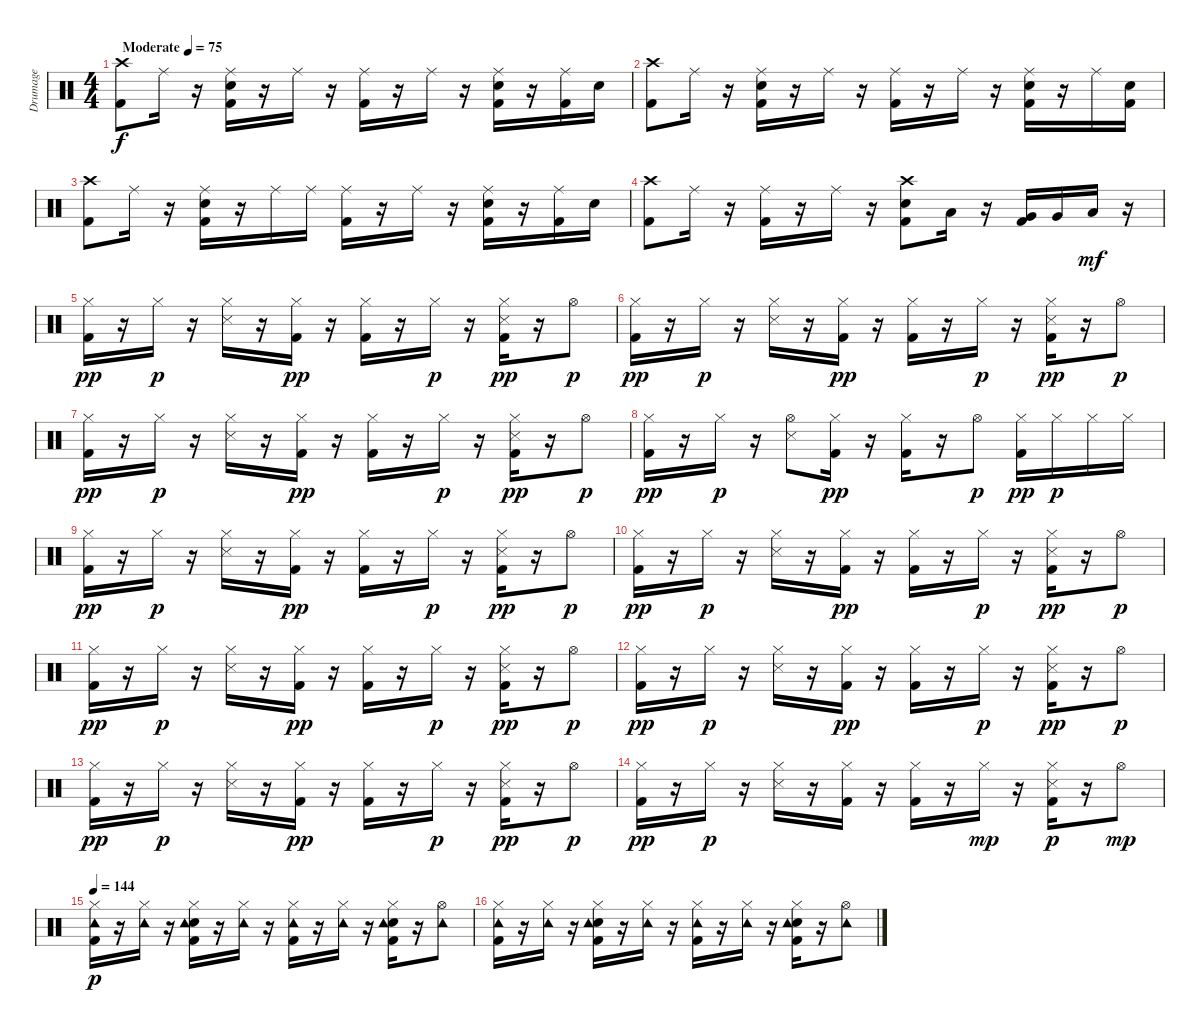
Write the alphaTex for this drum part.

\track ("Drumage" "Drumage") {instrument percussion}
\staff {score}
\articulation defaults
\ts (4 4)
\tempo (75 "Moderate")
\clef neutral
\ks c
("Crash high (hit)" "Kick (hit) 2").8{dy f} "Ride (middle)".16 r.16 ("Ride (middle)" "Electric Snare (hit)" "Kick (hit) 2").16 r.16 "Ride (middle)".16 r.16 ("Ride (middle)" "Kick (hit) 2").16 r.16 "Ride (middle)".16 r.16 ("Ride (middle)" "Electric Snare (hit)" "Kick (hit) 2").16 r.16 ("Ride (middle)" "Kick (hit) 2").16 "Electric Snare (hit)".16 |
("Crash high (hit)" "Kick (hit) 2").8 "Ride (middle)".16 r.16 ("Ride (middle)" "Electric Snare (hit)" "Kick (hit) 2").16 r.16 "Ride (middle)".16 r.16 ("Ride (middle)" "Kick (hit) 2").16 r.16 "Ride (middle)".16 r.16 ("Ride (middle)" "Electric Snare (hit)" "Kick (hit) 2").16 r.16 "Ride (middle)".16 ("Electric Snare (hit)" "Kick (hit) 2").16 |
("Crash high (hit)" "Kick (hit) 2").8 "Ride (middle)".16 r.16 ("Ride (middle)" "Electric Snare (hit)" "Kick (hit) 2").16 r.16 "Ride (middle)".16 "Ride (middle)".16 ("Ride (middle)" "Kick (hit) 2").16 r.16 "Ride (middle)".16 r.16 ("Ride (middle)" "Electric Snare (hit)" "Kick (hit) 2").16 r.16 ("Ride (middle)" "Kick (hit) 2").16 "Electric Snare (hit)".16 |
("Crash high (hit)" "Kick (hit) 2").8 "Ride (middle)".16 r.16 ("Ride (middle)" "Kick (hit) 2").16 r.16 "Ride (middle)".16 r.16 ("Crash high (hit)" "Electric Snare (hit)" "Kick (hit) 2").8 "Low Tom (hit)".16 r.16 ("Very Low Tom (hit)" "Kick (hit) 2").16 "Very Low Tom (hit)".16 "Low Floor Tom (hit)".16{dy mf} r.16 |
("Hi-Hat (closed)" "Kick (hit) 2").16{dy pp} r.16 "Hi-Hat (closed)".16{dy p} r.16 ("Hi-Hat (closed)" "Snare (side stick) 3").16 r.16 ("Hi-Hat (closed)" "Kick (hit) 2").16{dy pp} r.16 ("Hi-Hat (closed)" "Kick (hit) 2").16 r.16 "Hi-Hat (closed)".16{dy p} r.16 ("Hi-Hat (closed)" "Snare (side stick) 3" "Kick (hit) 2").16{dy pp} r.16 "Hi-Hat (open)".8{dy p} |
("Hi-Hat (closed)" "Kick (hit) 2").16{dy pp} r.16 "Hi-Hat (closed)".16{dy p} r.16 ("Hi-Hat (closed)" "Snare (side stick) 3").16 r.16 ("Hi-Hat (closed)" "Kick (hit) 2").16{dy pp} r.16 ("Hi-Hat (closed)" "Kick (hit) 2").16 r.16 "Hi-Hat (closed)".16{dy p} r.16 ("Hi-Hat (closed)" "Snare (side stick) 3" "Kick (hit) 2").16{dy pp} r.16 "Hi-Hat (open)".8{dy p} |
("Hi-Hat (closed)" "Kick (hit) 2").16{dy pp} r.16 "Hi-Hat (closed)".16{dy p} r.16 ("Hi-Hat (closed)" "Snare (side stick) 3").16 r.16 ("Hi-Hat (closed)" "Kick (hit) 2").16{dy pp} r.16 ("Hi-Hat (closed)" "Kick (hit) 2").16 r.16 "Hi-Hat (closed)".16{dy p} r.16 ("Hi-Hat (closed)" "Snare (side stick) 3" "Kick (hit) 2").16{dy pp} r.16 "Hi-Hat (open)".8{dy p} |
("Hi-Hat (closed)" "Kick (hit) 2").16{dy pp} r.16 "Hi-Hat (closed)".16{dy p} r.16 ("Hi-Hat (open)" "Snare (side stick) 3").8 ("Hi-Hat (closed)" "Kick (hit) 2").16{dy pp} r.16 ("Hi-Hat (closed)" "Kick (hit) 2").16 r.16 "Hi-Hat (open)".8{dy p} ("Hi-Hat (closed)" "Kick (hit) 2").16{dy pp} "Hi-Hat (closed)".16{dy p} "Hi-Hat (closed)".16 "Hi-Hat (closed)".16 |
("Hi-Hat (closed)" "Kick (hit) 2").16{dy pp} r.16 "Hi-Hat (closed)".16{dy p} r.16 ("Hi-Hat (closed)" "Snare (side stick) 3").16 r.16 ("Hi-Hat (closed)" "Kick (hit) 2").16{dy pp} r.16 ("Hi-Hat (closed)" "Kick (hit) 2").16 r.16 "Hi-Hat (closed)".16{dy p} r.16 ("Hi-Hat (closed)" "Snare (side stick) 3" "Kick (hit) 2").16{dy pp} r.16 "Hi-Hat (open)".8{dy p} |
("Hi-Hat (closed)" "Kick (hit) 2").16{dy pp} r.16 "Hi-Hat (closed)".16{dy p} r.16 ("Hi-Hat (closed)" "Snare (side stick) 3").16 r.16 ("Hi-Hat (closed)" "Kick (hit) 2").16{dy pp} r.16 ("Hi-Hat (closed)" "Kick (hit) 2").16 r.16 "Hi-Hat (closed)".16{dy p} r.16 ("Hi-Hat (closed)" "Snare (side stick) 3" "Kick (hit) 2").16{dy pp} r.16 "Hi-Hat (open)".8{dy p} |
("Hi-Hat (closed)" "Kick (hit) 2").16{dy pp} r.16 "Hi-Hat (closed)".16{dy p} r.16 ("Hi-Hat (closed)" "Snare (side stick) 3").16 r.16 ("Hi-Hat (closed)" "Kick (hit) 2").16{dy pp} r.16 ("Hi-Hat (closed)" "Kick (hit) 2").16 r.16 "Hi-Hat (closed)".16{dy p} r.16 ("Hi-Hat (closed)" "Snare (side stick) 3" "Kick (hit) 2").16{dy pp} r.16 "Hi-Hat (open)".8{dy p} |
("Hi-Hat (closed)" "Kick (hit) 2").16{dy pp} r.16 "Hi-Hat (closed)".16{dy p} r.16 ("Hi-Hat (closed)" "Snare (side stick) 3").16 r.16 ("Hi-Hat (closed)" "Kick (hit) 2").16{dy pp} r.16 ("Hi-Hat (closed)" "Kick (hit) 2").16 r.16 "Hi-Hat (closed)".16{dy p} r.16 ("Hi-Hat (closed)" "Snare (side stick) 3" "Kick (hit) 2").16{dy pp} r.16 "Hi-Hat (open)".8{dy p} |
("Hi-Hat (closed)" "Kick (hit) 2").16{dy pp} r.16 "Hi-Hat (closed)".16{dy p} r.16 ("Hi-Hat (closed)" "Snare (side stick) 3").16 r.16 ("Hi-Hat (closed)" "Kick (hit) 2").16{dy pp} r.16 ("Hi-Hat (closed)" "Kick (hit) 2").16 r.16 "Hi-Hat (closed)".16{dy p} r.16 ("Hi-Hat (closed)" "Snare (side stick) 3" "Kick (hit) 2").16{dy pp} r.16 "Hi-Hat (open)".8{dy p} |
("Hi-Hat (closed)" "Kick (hit) 2").16{dy pp} r.16 "Hi-Hat (closed)".16{dy p} r.16 ("Hi-Hat (closed)" "Snare (side stick) 3").16 r.16 ("Hi-Hat (closed)" "Kick (hit) 2").16 r.16 ("Hi-Hat (closed)" "Kick (hit) 2").16 r.16 "Hi-Hat (closed)".16{dy mp} r.16 ("Hi-Hat (closed)" "Snare (side stick) 3" "Kick (hit) 2").16{dy p} r.16 "Hi-Hat (open)".8{dy mp} |
\tempo 144
("Hi-Hat (closed)" "Kick (hit) 2" "Tambourine (hit)").16{dy p} r.16 ("Hi-Hat (closed)" "Tambourine (hit)").16 r.16 ("Hi-Hat (closed)" "Electric Snare (hit)" "Kick (hit) 2" "Tambourine (hit)").16 r.16 ("Hi-Hat (closed)" "Tambourine (hit)").16 r.16 ("Hi-Hat (closed)" "Kick (hit) 2" "Tambourine (hit)").16 r.16 ("Hi-Hat (closed)" "Tambourine (hit)").16 r.16 ("Hi-Hat (closed)" "Electric Snare (hit)" "Kick (hit) 2" "Tambourine (hit)").16 r.16 ("Hi-Hat (open)" "Tambourine (hit)").8 |
("Hi-Hat (closed)" "Kick (hit) 2" "Tambourine (hit)").16 r.16 ("Hi-Hat (closed)" "Tambourine (hit)").16 r.16 ("Hi-Hat (closed)" "Electric Snare (hit)" "Kick (hit) 2" "Tambourine (hit)").16 r.16 ("Hi-Hat (closed)" "Tambourine (hit)").16 r.16 ("Hi-Hat (closed)" "Kick (hit) 2" "Tambourine (hit)").16 r.16 ("Hi-Hat (closed)" "Tambourine (hit)").16 r.16 ("Hi-Hat (closed)" "Electric Snare (hit)" "Kick (hit) 2" "Tambourine (hit)").16 r.16 ("Hi-Hat (open)" "Tambourine (hit)").8
